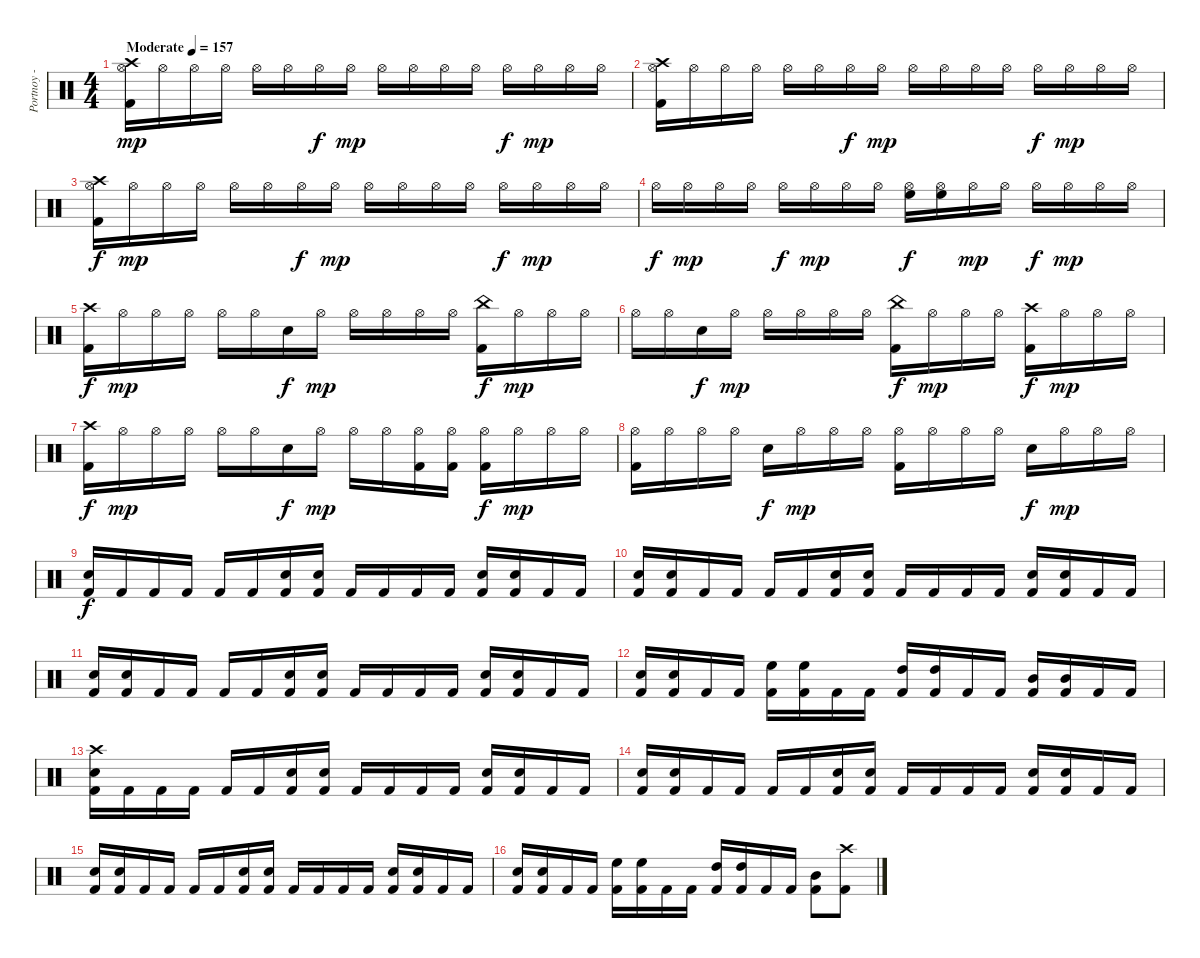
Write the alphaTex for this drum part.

\track ("Portnoy - Drums" "Portnoy - ") {instrument percussion}
\staff {score}
\articulation defaults
\ts (4 4)
\tempo (157 "Moderate")
\clef neutral
\ks c
("Crash high (hit)" "Kick (hit) 2" "Hi-Hat (open)").16{dy mp} "Hi-Hat (open)".16 "Hi-Hat (open)".16 "Hi-Hat (open)".16 "Hi-Hat (open)".16 "Hi-Hat (open)".16 "Hi-Hat (open)".16{dy f} "Hi-Hat (open)".16{dy mp} "Hi-Hat (open)".16 "Hi-Hat (open)".16 "Hi-Hat (open)".16 "Hi-Hat (open)".16 "Hi-Hat (open)".16{dy f} "Hi-Hat (open)".16{dy mp} "Hi-Hat (open)".16 "Hi-Hat (open)".16 |
("Crash high (hit)" "Kick (hit) 2" "Hi-Hat (open)").16 "Hi-Hat (open)".16 "Hi-Hat (open)".16 "Hi-Hat (open)".16 "Hi-Hat (open)".16 "Hi-Hat (open)".16 "Hi-Hat (open)".16{dy f} "Hi-Hat (open)".16{dy mp} "Hi-Hat (open)".16 "Hi-Hat (open)".16 "Hi-Hat (open)".16 "Hi-Hat (open)".16 "Hi-Hat (open)".16{dy f} "Hi-Hat (open)".16{dy mp} "Hi-Hat (open)".16 "Hi-Hat (open)".16 |
("Hi-Hat (open)" "Crash high (hit)" "Kick (hit) 2").16{dy f} "Hi-Hat (open)".16{dy mp} "Hi-Hat (open)".16 "Hi-Hat (open)".16 "Hi-Hat (open)".16 "Hi-Hat (open)".16 "Hi-Hat (open)".16{dy f} "Hi-Hat (open)".16{dy mp} "Hi-Hat (open)".16 "Hi-Hat (open)".16 "Hi-Hat (open)".16 "Hi-Hat (open)".16 "Hi-Hat (open)".16{dy f} "Hi-Hat (open)".16{dy mp} "Hi-Hat (open)".16 "Hi-Hat (open)".16 |
"Hi-Hat (open)".16{dy f} "Hi-Hat (open)".16{dy mp} "Hi-Hat (open)".16 "Hi-Hat (open)".16 "Hi-Hat (open)".16{dy f} "Hi-Hat (open)".16{dy mp} "Hi-Hat (open)".16 "Hi-Hat (open)".16 ("Hi-Hat (open)" "High Floor Tom (hit)").16{dy f} ("Hi-Hat (open)" "High Floor Tom (hit)").16 "Hi-Hat (open)".16{dy mp} "Hi-Hat (open)".16 "Hi-Hat (open)".16{dy f} "Hi-Hat (open)".16{dy mp} "Hi-Hat (open)".16 "Hi-Hat (open)".16 |
("Crash high (hit)" "Kick (hit) 2").16{dy f} "Hi-Hat (open)".16{dy mp} "Hi-Hat (open)".16 "Hi-Hat (open)".16 "Hi-Hat (open)".16 "Hi-Hat (open)".16 "Electric Snare (hit)".16{dy f} "Hi-Hat (open)".16{dy mp} "Hi-Hat (open)".16 "Hi-Hat (open)".16 "Hi-Hat (open)".16 "Hi-Hat (open)".16 ("China (hit)" "Kick (hit) 2").16{dy f} "Hi-Hat (open)".16{dy mp} "Hi-Hat (open)".16 "Hi-Hat (open)".16 |
"Hi-Hat (open)".16 "Hi-Hat (open)".16 "Electric Snare (hit)".16{dy f} "Hi-Hat (open)".16{dy mp} "Hi-Hat (open)".16 "Hi-Hat (open)".16 "Hi-Hat (open)".16 "Hi-Hat (open)".16 ("China (hit)" "Kick (hit) 2").16{dy f} "Hi-Hat (open)".16{dy mp} "Hi-Hat (open)".16 "Hi-Hat (open)".16 ("Crash high (hit)" "Kick (hit) 2").16{dy f} "Hi-Hat (open)".16{dy mp} "Hi-Hat (open)".16 "Hi-Hat (open)".16 |
("Kick (hit) 2" "Crash high (hit)").16{dy f} "Hi-Hat (open)".16{dy mp} "Hi-Hat (open)".16 "Hi-Hat (open)".16 "Hi-Hat (open)".16 "Hi-Hat (open)".16 "Electric Snare (hit)".16{dy f} "Hi-Hat (open)".16{dy mp} "Hi-Hat (open)".16 "Hi-Hat (open)".16 ("Kick (hit) 2" "Hi-Hat (open)").16 ("Kick (hit) 2" "Hi-Hat (open)").16 ("Hi-Hat (open)" "Kick (hit) 2").16{dy f} "Hi-Hat (open)".16{dy mp} "Hi-Hat (open)".16 "Hi-Hat (open)".16 |
("Kick (hit) 2" "Hi-Hat (open)").16 "Hi-Hat (open)".16 "Hi-Hat (open)".16 "Hi-Hat (open)".16 "Electric Snare (hit)".16{dy f} "Hi-Hat (open)".16{dy mp} "Hi-Hat (open)".16 "Hi-Hat (open)".16 ("Kick (hit) 2" "Hi-Hat (open)").16 "Hi-Hat (open)".16 "Hi-Hat (open)".16 "Hi-Hat (open)".16 "Electric Snare (hit)".16{dy f} "Hi-Hat (open)".16{dy mp} "Hi-Hat (open)".16 "Hi-Hat (open)".16 |
("Electric Snare (hit)" "Kick (hit) 2").16{dy f} "Kick (hit) 2".16 "Kick (hit) 2".16 "Kick (hit) 2".16 "Kick (hit) 2".16 "Kick (hit) 2".16 ("Kick (hit) 2" "Electric Snare (hit)").16 ("Kick (hit) 2" "Electric Snare (hit)").16 "Kick (hit) 2".16 "Kick (hit) 2".16 "Kick (hit) 2".16 "Kick (hit) 2".16 ("Kick (hit) 2" "Electric Snare (hit)").16 ("Kick (hit) 2" "Electric Snare (hit)").16 "Kick (hit) 2".16 "Kick (hit) 2".16 |
("Kick (hit) 2" "Electric Snare (hit)").16 ("Kick (hit) 2" "Electric Snare (hit)").16 "Kick (hit) 2".16 "Kick (hit) 2".16 "Kick (hit) 2".16 "Kick (hit) 2".16 ("Kick (hit) 2" "Electric Snare (hit)").16 ("Kick (hit) 2" "Electric Snare (hit)").16 "Kick (hit) 2".16 "Kick (hit) 2".16 "Kick (hit) 2".16 "Kick (hit) 2".16 ("Kick (hit) 2" "Electric Snare (hit)").16 ("Kick (hit) 2" "Electric Snare (hit)").16 "Kick (hit) 2".16 "Kick (hit) 2".16 |
("Kick (hit) 2" "Electric Snare (hit)").16 ("Kick (hit) 2" "Electric Snare (hit)").16 "Kick (hit) 2".16 "Kick (hit) 2".16 "Kick (hit) 2".16 "Kick (hit) 2".16 ("Kick (hit) 2" "Electric Snare (hit)").16 ("Kick (hit) 2" "Electric Snare (hit)").16 "Kick (hit) 2".16 "Kick (hit) 2".16 "Kick (hit) 2".16 "Kick (hit) 2".16 ("Kick (hit) 2" "Electric Snare (hit)").16 ("Kick (hit) 2" "Electric Snare (hit)").16 "Kick (hit) 2".16 "Kick (hit) 2".16 |
("Kick (hit) 2" "Electric Snare (hit)").16 ("Kick (hit) 2" "Electric Snare (hit)").16 "Kick (hit) 2".16 "Kick (hit) 2".16 ("Kick (hit) 2" "High Floor Tom (hit)").16 ("Kick (hit) 2" "High Floor Tom (hit)").16 "Kick (hit) 2".16 "Kick (hit) 2".16 ("Kick (hit) 2" "High Tom (hit)").16 ("Kick (hit) 2" "High Tom (hit)").16 "Kick (hit) 2".16 "Kick (hit) 2".16 ("Kick (hit) 2" "Mid Tom (hit)").16 ("Kick (hit) 2" "Mid Tom (hit)").16 "Kick (hit) 2".16 "Kick (hit) 2".16 |
("Kick (hit) 2" "Crash high (hit)" "Electric Snare (hit)").16 "Kick (hit) 2".16 "Kick (hit) 2".16 "Kick (hit) 2".16 "Kick (hit) 2".16 "Kick (hit) 2".16 ("Kick (hit) 2" "Electric Snare (hit)").16 ("Kick (hit) 2" "Electric Snare (hit)").16 "Kick (hit) 2".16 "Kick (hit) 2".16 "Kick (hit) 2".16 "Kick (hit) 2".16 ("Kick (hit) 2" "Electric Snare (hit)").16 ("Kick (hit) 2" "Electric Snare (hit)").16 "Kick (hit) 2".16 "Kick (hit) 2".16 |
("Kick (hit) 2" "Electric Snare (hit)").16 ("Kick (hit) 2" "Electric Snare (hit)").16 "Kick (hit) 2".16 "Kick (hit) 2".16 "Kick (hit) 2".16 "Kick (hit) 2".16 ("Kick (hit) 2" "Electric Snare (hit)").16 ("Kick (hit) 2" "Electric Snare (hit)").16 "Kick (hit) 2".16 "Kick (hit) 2".16 "Kick (hit) 2".16 "Kick (hit) 2".16 ("Kick (hit) 2" "Electric Snare (hit)").16 ("Kick (hit) 2" "Electric Snare (hit)").16 "Kick (hit) 2".16 "Kick (hit) 2".16 |
("Kick (hit) 2" "Electric Snare (hit)").16 ("Kick (hit) 2" "Electric Snare (hit)").16 "Kick (hit) 2".16 "Kick (hit) 2".16 "Kick (hit) 2".16 "Kick (hit) 2".16 ("Kick (hit) 2" "Electric Snare (hit)").16 ("Kick (hit) 2" "Electric Snare (hit)").16 "Kick (hit) 2".16 "Kick (hit) 2".16 "Kick (hit) 2".16 "Kick (hit) 2".16 ("Kick (hit) 2" "Electric Snare (hit)").16 ("Kick (hit) 2" "Electric Snare (hit)").16 "Kick (hit) 2".16 "Kick (hit) 2".16 |
("Kick (hit) 2" "Electric Snare (hit)").16 ("Kick (hit) 2" "Electric Snare (hit)").16 "Kick (hit) 2".16 "Kick (hit) 2".16 ("Kick (hit) 2" "High Floor Tom (hit)").16 ("Kick (hit) 2" "High Floor Tom (hit)").16 "Kick (hit) 2".16 "Kick (hit) 2".16 ("Kick (hit) 2" "High Tom (hit)").16 ("Kick (hit) 2" "High Tom (hit)").16 "Kick (hit) 2".16 "Kick (hit) 2".16 ("Kick (hit) 2" "Mid Tom (hit)").8 ("Kick (hit) 2" "Crash high (hit)").8
